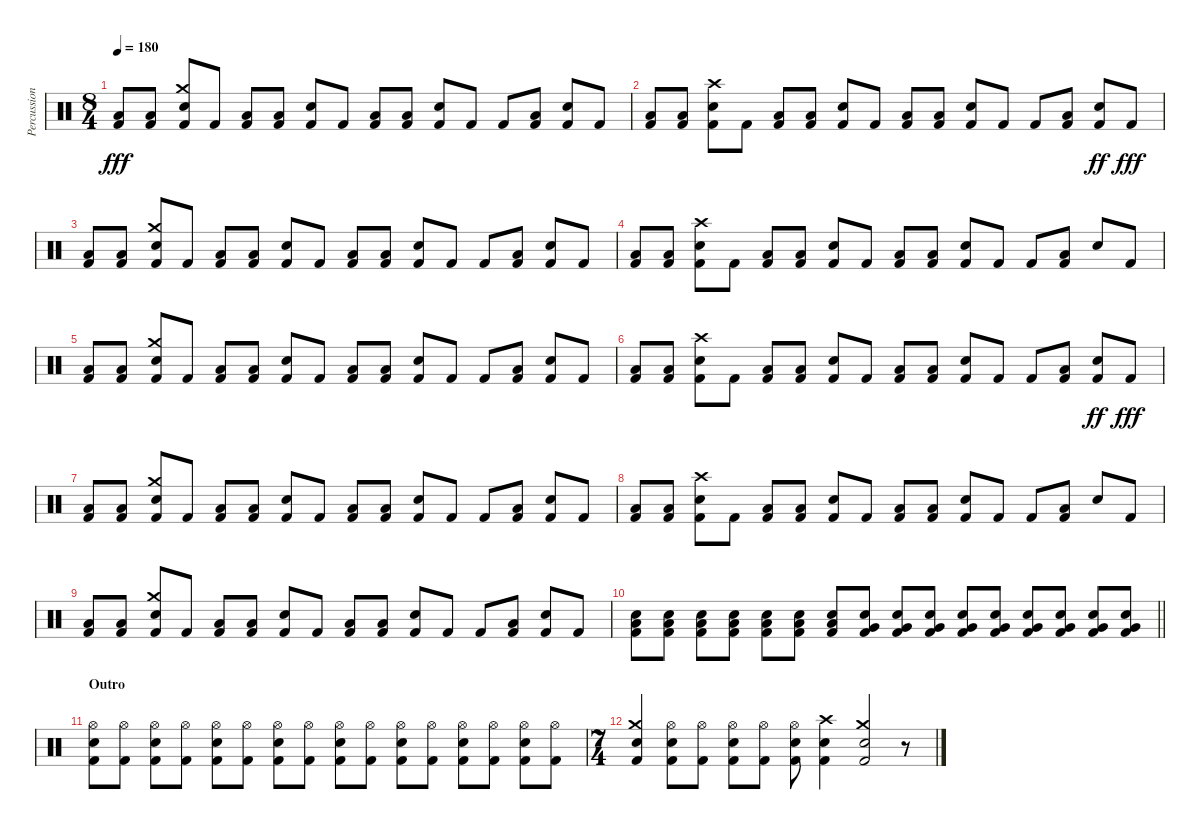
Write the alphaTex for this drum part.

\track ("Percussion" "Percussion") {instrument percussion}
\staff {score}
\articulation defaults
\ts (8 4)
\tempo 180
\clef neutral
\ks c
("Low Floor Tom (hit)" "Kick (hit) 2").8{dy fff} ("Low Floor Tom (hit)" "Kick (hit) 2").8 ("Crash medium (hit)" "Electric Snare (hit)" "Kick (hit) 2").8 "Kick (hit) 2".8 ("Low Floor Tom (hit)" "Kick (hit) 2").8 ("Low Floor Tom (hit)" "Kick (hit) 2").8 ("Electric Snare (hit)" "Kick (hit) 2").8 "Kick (hit) 2".8 ("Low Floor Tom (hit)" "Kick (hit) 2").8 ("Low Floor Tom (hit)" "Kick (hit) 2").8 ("Electric Snare (hit)" "Kick (hit) 2").8 "Kick (hit) 2".8 "Kick (hit) 2".8 ("Low Floor Tom (hit)" "Kick (hit) 2").8 ("Electric Snare (hit)" "Kick (hit) 2").8 "Kick (hit) 2".8 |
("Low Floor Tom (hit)" "Kick (hit) 2").8 ("Low Floor Tom (hit)" "Kick (hit) 2").8 ("Crash high (hit)" "Electric Snare (hit)" "Kick (hit) 2").8 "Kick (hit) 2".8 ("Low Floor Tom (hit)" "Kick (hit) 2").8 ("Low Floor Tom (hit)" "Kick (hit) 2").8 ("Electric Snare (hit)" "Kick (hit) 2").8 "Kick (hit) 2".8 ("Low Floor Tom (hit)" "Kick (hit) 2").8 ("Low Floor Tom (hit)" "Kick (hit) 2").8 ("Electric Snare (hit)" "Kick (hit) 2").8 "Kick (hit) 2".8 "Kick (hit) 2".8 ("Low Floor Tom (hit)" "Kick (hit) 2").8 ("Electric Snare (hit)" "Kick (hit) 2").8{dy ff} "Kick (hit) 2".8{dy fff} |
("Low Floor Tom (hit)" "Kick (hit) 2").8 ("Low Floor Tom (hit)" "Kick (hit) 2").8 ("Crash medium (hit)" "Electric Snare (hit)" "Kick (hit) 2").8 "Kick (hit) 2".8 ("Low Floor Tom (hit)" "Kick (hit) 2").8 ("Low Floor Tom (hit)" "Kick (hit) 2").8 ("Electric Snare (hit)" "Kick (hit) 2").8 "Kick (hit) 2".8 ("Low Floor Tom (hit)" "Kick (hit) 2").8 ("Low Floor Tom (hit)" "Kick (hit) 2").8 ("Electric Snare (hit)" "Kick (hit) 2").8 "Kick (hit) 2".8 "Kick (hit) 2".8 ("Low Floor Tom (hit)" "Kick (hit) 2").8 ("Electric Snare (hit)" "Kick (hit) 2").8 "Kick (hit) 2".8 |
("Low Floor Tom (hit)" "Kick (hit) 2").8 ("Low Floor Tom (hit)" "Kick (hit) 2").8 ("Crash high (hit)" "Electric Snare (hit)" "Kick (hit) 2").8 "Kick (hit) 2".8 ("Low Floor Tom (hit)" "Kick (hit) 2").8 ("Low Floor Tom (hit)" "Kick (hit) 2").8 ("Electric Snare (hit)" "Kick (hit) 2").8 "Kick (hit) 2".8 ("Low Floor Tom (hit)" "Kick (hit) 2").8 ("Low Floor Tom (hit)" "Kick (hit) 2").8 ("Electric Snare (hit)" "Kick (hit) 2").8 "Kick (hit) 2".8 "Kick (hit) 2".8 ("Low Floor Tom (hit)" "Kick (hit) 2").8 "Electric Snare (hit)".8 "Kick (hit) 2".8 |
("Low Floor Tom (hit)" "Kick (hit) 2").8 ("Low Floor Tom (hit)" "Kick (hit) 2").8 ("Crash medium (hit)" "Electric Snare (hit)" "Kick (hit) 2").8 "Kick (hit) 2".8 ("Low Floor Tom (hit)" "Kick (hit) 2").8 ("Low Floor Tom (hit)" "Kick (hit) 2").8 ("Electric Snare (hit)" "Kick (hit) 2").8 "Kick (hit) 2".8 ("Low Floor Tom (hit)" "Kick (hit) 2").8 ("Low Floor Tom (hit)" "Kick (hit) 2").8 ("Electric Snare (hit)" "Kick (hit) 2").8 "Kick (hit) 2".8 "Kick (hit) 2".8 ("Low Floor Tom (hit)" "Kick (hit) 2").8 ("Electric Snare (hit)" "Kick (hit) 2").8 "Kick (hit) 2".8 |
("Low Floor Tom (hit)" "Kick (hit) 2").8 ("Low Floor Tom (hit)" "Kick (hit) 2").8 ("Crash high (hit)" "Electric Snare (hit)" "Kick (hit) 2").8 "Kick (hit) 2".8 ("Low Floor Tom (hit)" "Kick (hit) 2").8 ("Low Floor Tom (hit)" "Kick (hit) 2").8 ("Electric Snare (hit)" "Kick (hit) 2").8 "Kick (hit) 2".8 ("Low Floor Tom (hit)" "Kick (hit) 2").8 ("Low Floor Tom (hit)" "Kick (hit) 2").8 ("Electric Snare (hit)" "Kick (hit) 2").8 "Kick (hit) 2".8 "Kick (hit) 2".8 ("Low Floor Tom (hit)" "Kick (hit) 2").8 ("Electric Snare (hit)" "Kick (hit) 2").8{dy ff} "Kick (hit) 2".8{dy fff} |
("Low Floor Tom (hit)" "Kick (hit) 2").8 ("Low Floor Tom (hit)" "Kick (hit) 2").8 ("Crash medium (hit)" "Electric Snare (hit)" "Kick (hit) 2").8 "Kick (hit) 2".8 ("Low Floor Tom (hit)" "Kick (hit) 2").8 ("Low Floor Tom (hit)" "Kick (hit) 2").8 ("Electric Snare (hit)" "Kick (hit) 2").8 "Kick (hit) 2".8 ("Low Floor Tom (hit)" "Kick (hit) 2").8 ("Low Floor Tom (hit)" "Kick (hit) 2").8 ("Electric Snare (hit)" "Kick (hit) 2").8 "Kick (hit) 2".8 "Kick (hit) 2".8 ("Low Floor Tom (hit)" "Kick (hit) 2").8 ("Electric Snare (hit)" "Kick (hit) 2").8 "Kick (hit) 2".8 |
("Low Floor Tom (hit)" "Kick (hit) 2").8 ("Low Floor Tom (hit)" "Kick (hit) 2").8 ("Crash high (hit)" "Electric Snare (hit)" "Kick (hit) 2").8 "Kick (hit) 2".8 ("Low Floor Tom (hit)" "Kick (hit) 2").8 ("Low Floor Tom (hit)" "Kick (hit) 2").8 ("Electric Snare (hit)" "Kick (hit) 2").8 "Kick (hit) 2".8 ("Low Floor Tom (hit)" "Kick (hit) 2").8 ("Low Floor Tom (hit)" "Kick (hit) 2").8 ("Electric Snare (hit)" "Kick (hit) 2").8 "Kick (hit) 2".8 "Kick (hit) 2".8 ("Low Floor Tom (hit)" "Kick (hit) 2").8 "Electric Snare (hit)".8 "Kick (hit) 2".8 |
("Low Floor Tom (hit)" "Kick (hit) 2").8 ("Low Floor Tom (hit)" "Kick (hit) 2").8 ("Crash medium (hit)" "Electric Snare (hit)" "Kick (hit) 2").8 "Kick (hit) 2".8 ("Low Floor Tom (hit)" "Kick (hit) 2").8 ("Low Floor Tom (hit)" "Kick (hit) 2").8 ("Electric Snare (hit)" "Kick (hit) 2").8 "Kick (hit) 2".8 ("Low Floor Tom (hit)" "Kick (hit) 2").8 ("Low Floor Tom (hit)" "Kick (hit) 2").8 ("Electric Snare (hit)" "Kick (hit) 2").8 "Kick (hit) 2".8 "Kick (hit) 2".8 ("Low Floor Tom (hit)" "Kick (hit) 2").8 ("Electric Snare (hit)" "Kick (hit) 2").8 "Kick (hit) 2".8 |
\barLineRight lightlight
("Low Floor Tom (hit)" "Electric Snare (hit)" "Kick (hit) 2").8 ("Low Floor Tom (hit)" "Electric Snare (hit)" "Kick (hit) 2").8 ("Low Floor Tom (hit)" "Electric Snare (hit)" "Kick (hit) 2").8 ("Low Floor Tom (hit)" "Electric Snare (hit)" "Kick (hit) 2").8 ("Low Floor Tom (hit)" "Electric Snare (hit)" "Kick (hit) 2").8 ("Low Floor Tom (hit)" "Electric Snare (hit)" "Kick (hit) 2").8 ("Low Floor Tom (hit)" "Electric Snare (hit)" "Kick (hit) 2").8 ("Very Low Tom (hit)" "Electric Snare (hit)" "Kick (hit) 2").8 ("Very Low Tom (hit)" "Electric Snare (hit)" "Kick (hit) 2").8 ("Very Low Tom (hit)" "Electric Snare (hit)" "Kick (hit) 2").8 ("Very Low Tom (hit)" "Electric Snare (hit)" "Kick (hit) 2").8 ("Very Low Tom (hit)" "Electric Snare (hit)" "Kick (hit) 2").8 ("Very Low Tom (hit)" "Electric Snare (hit)" "Kick (hit) 2").8 ("Very Low Tom (hit)" "Electric Snare (hit)" "Kick (hit) 2").8 ("Very Low Tom (hit)" "Electric Snare (hit)" "Kick (hit) 2").8 ("Very Low Tom (hit)" "Electric Snare (hit)" "Kick (hit) 2").8 |
\section ("" "Outro")
("Hi-Hat (open)" "Electric Snare (hit)" "Kick (hit) 2").8 ("Hi-Hat (open)" "Kick (hit) 2").8 ("Hi-Hat (open)" "Electric Snare (hit)" "Kick (hit) 2").8 ("Hi-Hat (open)" "Kick (hit) 2").8 ("Hi-Hat (open)" "Electric Snare (hit)" "Kick (hit) 2").8 ("Hi-Hat (open)" "Kick (hit) 2").8 ("Hi-Hat (open)" "Electric Snare (hit)" "Kick (hit) 2").8 ("Hi-Hat (open)" "Kick (hit) 2").8 ("Hi-Hat (open)" "Electric Snare (hit)" "Kick (hit) 2").8 ("Hi-Hat (open)" "Kick (hit) 2").8 ("Hi-Hat (open)" "Electric Snare (hit)" "Kick (hit) 2").8 ("Hi-Hat (open)" "Kick (hit) 2").8 ("Hi-Hat (open)" "Electric Snare (hit)" "Kick (hit) 2").8 ("Hi-Hat (open)" "Kick (hit) 2").8 ("Hi-Hat (open)" "Electric Snare (hit)" "Kick (hit) 2").8 ("Hi-Hat (open)" "Kick (hit) 2").8 |
\ts (7 4)
("Crash medium (hit)" "Electric Snare (hit)" "Kick (hit) 2").4 ("Hi-Hat (open)" "Electric Snare (hit)" "Kick (hit) 2").8 ("Hi-Hat (open)" "Kick (hit) 2").8 ("Hi-Hat (open)" "Electric Snare (hit)" "Kick (hit) 2").8 ("Hi-Hat (open)" "Kick (hit) 2").8 ("Hi-Hat (open)" "Electric Snare (hit)" "Kick (hit) 2").8 ("Crash high (hit)" "Electric Snare (hit)" "Kick (hit) 2").4 ("Crash medium (hit)" "Electric Snare (hit)" "Kick (hit) 2").2 r.8
